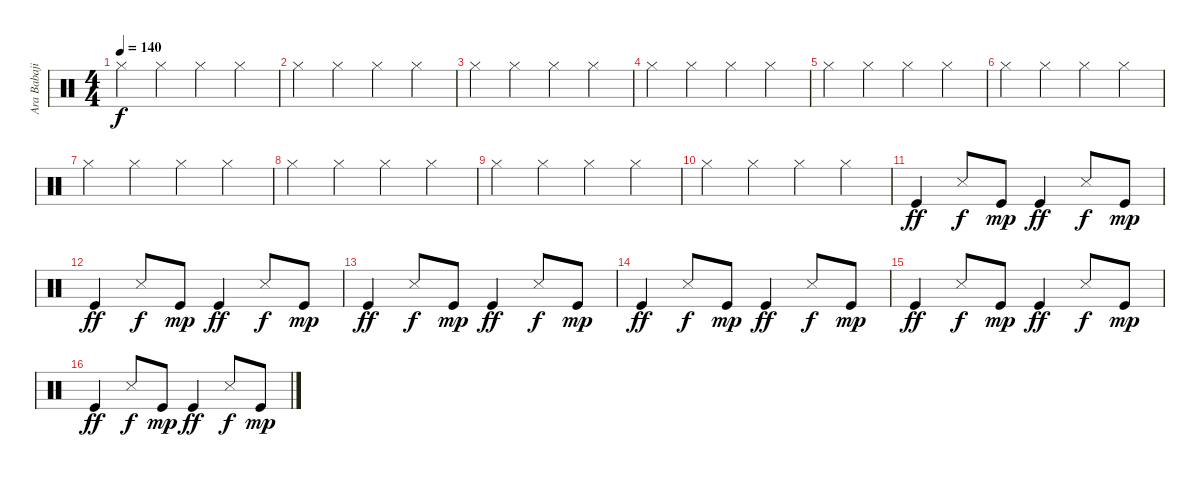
\track ("Ara Babajian Drums" "Ara Babaji") {instrument percussion}
\staff {score}
\articulation defaults
\ts (4 4)
\tempo 140
\clef neutral
\ks c "Hi-Hat (closed)".4{dy f} "Hi-Hat (closed)".4 "Hi-Hat (closed)".4 "Hi-Hat (closed)".4
|
"Hi-Hat (closed)".4 "Hi-Hat (closed)".4 "Hi-Hat (closed)".4 "Hi-Hat (closed)".4 |
"Hi-Hat (closed)".4 "Hi-Hat (closed)".4 "Hi-Hat (closed)".4 "Hi-Hat (closed)".4 |
"Hi-Hat (closed)".4 "Hi-Hat (closed)".4 "Hi-Hat (closed)".4 "Hi-Hat (closed)".4 |
"Hi-Hat (closed)".4 "Hi-Hat (closed)".4 "Hi-Hat (closed)".4 "Hi-Hat (closed)".4 |
"Hi-Hat (closed)".4 "Hi-Hat (closed)".4 "Hi-Hat (closed)".4 "Hi-Hat (closed)".4 |
"Hi-Hat (closed)".4 "Hi-Hat (closed)".4 "Hi-Hat (closed)".4 "Hi-Hat (closed)".4 |
"Hi-Hat (closed)".4 "Hi-Hat (closed)".4 "Hi-Hat (closed)".4 "Hi-Hat (closed)".4 |
"Hi-Hat (closed)".4 "Hi-Hat (closed)".4 "Hi-Hat (closed)".4 "Hi-Hat (closed)".4 |
"Hi-Hat (closed)".4 "Hi-Hat (closed)".4 "Hi-Hat (closed)".4 "Hi-Hat (closed)".4 |
"Kick (hit)".4{dy ff} "Snare (side stick) 3".8{dy f} "Kick (hit)".8{dy mp} "Kick (hit)".4{dy ff} "Snare (side stick) 3".8{dy f} "Kick (hit)".8{dy mp} |
"Kick (hit)".4{dy ff} "Snare (side stick) 3".8{dy f} "Kick (hit)".8{dy mp} "Kick (hit)".4{dy ff} "Snare (side stick) 3".8{dy f} "Kick (hit)".8{dy mp} |
"Kick (hit)".4{dy ff} "Snare (side stick) 3".8{dy f} "Kick (hit)".8{dy mp} "Kick (hit)".4{dy ff} "Snare (side stick) 3".8{dy f} "Kick (hit)".8{dy mp} |
"Kick (hit)".4{dy ff} "Snare (side stick) 3".8{dy f} "Kick (hit)".8{dy mp} "Kick (hit)".4{dy ff} "Snare (side stick) 3".8{dy f} "Kick (hit)".8{dy mp} |
"Kick (hit)".4{dy ff} "Snare (side stick) 3".8{dy f} "Kick (hit)".8{dy mp} "Kick (hit)".4{dy ff} "Snare (side stick) 3".8{dy f} "Kick (hit)".8{dy mp} |
"Kick (hit)".4{dy ff} "Snare (side stick) 3".8{dy f} "Kick (hit)".8{dy mp} "Kick (hit)".4{dy ff} "Snare (side stick) 3".8{dy f} "Kick (hit)".8{dy mp}
